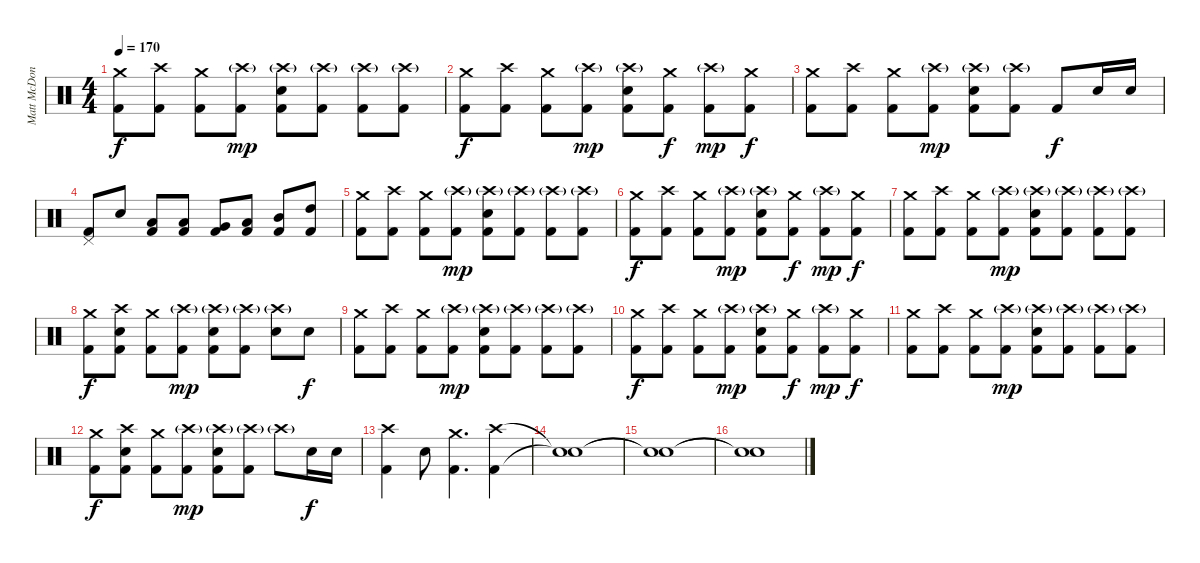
\track ("Matt McDonough" "Matt McDon") {instrument percussion}
\staff {score}
\articulation defaults
\ts (4 4)
\tempo 170
\clef neutral
\ks c
("Crash medium (hit)" "Kick (hit) 2").8{dy f} ("Crash high (hit)" "Kick (hit) 2").8 ("Crash medium (hit)" "Kick (hit) 2").8 ("Crash high (hit)"{g} "Kick (hit) 2").8{dy mp} ("Crash high (hit)"{g} "Electric Snare (hit)" "Kick (hit) 2").8 ("Crash high (hit)"{g} "Kick (hit) 2").8 ("Crash high (hit)"{g} "Kick (hit) 2").8 ("Crash high (hit)"{g} "Kick (hit) 2").8 |
("Crash medium (hit)" "Kick (hit) 2").8{dy f} ("Crash high (hit)" "Kick (hit) 2").8 ("Crash medium (hit)" "Kick (hit) 2").8 ("Crash high (hit)"{g} "Kick (hit) 2").8{dy mp} ("Crash high (hit)"{g} "Electric Snare (hit)" "Kick (hit) 2").8 ("Crash medium (hit)" "Kick (hit) 2").8{dy f} ("Crash high (hit)"{g} "Kick (hit) 2").8{dy mp} ("Crash medium (hit)" "Kick (hit) 2").8{dy f} |
("Crash medium (hit)" "Kick (hit) 2").8 ("Crash high (hit)" "Kick (hit) 2").8 ("Crash medium (hit)" "Kick (hit) 2").8 ("Crash high (hit)"{g} "Kick (hit) 2").8{dy mp} ("Crash high (hit)"{g} "Electric Snare (hit)" "Kick (hit) 2").8 ("Crash high (hit)"{g} "Kick (hit) 2").8 "Kick (hit) 2".8{dy f} "Electric Snare (hit)".16 "Electric Snare (hit)".16 |
("Pedal Hi-Hat (hit)" "Kick (hit) 2").8 "Electric Snare (hit)".8 ("Low Floor Tom (hit)" "Kick (hit) 2").8 ("Low Floor Tom (hit)" "Kick (hit) 2").8 ("Very Low Tom (hit)" "Kick (hit) 2").8 ("Low Tom (hit)" "Kick (hit) 2").8 ("Mid Tom (hit)" "Kick (hit) 2").8 ("High Tom (hit)" "Kick (hit) 2").8 |
("Crash medium (hit)" "Kick (hit) 2").8 ("Crash high (hit)" "Kick (hit) 2").8 ("Crash medium (hit)" "Kick (hit) 2").8 ("Crash high (hit)"{g} "Kick (hit) 2").8{dy mp} ("Crash high (hit)"{g} "Electric Snare (hit)" "Kick (hit) 2").8 ("Crash high (hit)"{g} "Kick (hit) 2").8 ("Crash high (hit)"{g} "Kick (hit) 2").8 ("Crash high (hit)"{g} "Kick (hit) 2").8 |
("Crash medium (hit)" "Kick (hit) 2").8{dy f} ("Crash high (hit)" "Kick (hit) 2").8 ("Crash medium (hit)" "Kick (hit) 2").8 ("Crash high (hit)"{g} "Kick (hit) 2").8{dy mp} ("Crash high (hit)"{g} "Electric Snare (hit)" "Kick (hit) 2").8 ("Crash medium (hit)" "Kick (hit) 2").8{dy f} ("Crash high (hit)"{g} "Kick (hit) 2").8{dy mp} ("Crash medium (hit)" "Kick (hit) 2").8{dy f} |
("Crash medium (hit)" "Kick (hit) 2").8 ("Crash high (hit)" "Kick (hit) 2").8 ("Crash medium (hit)" "Kick (hit) 2").8 ("Crash high (hit)"{g} "Kick (hit) 2").8{dy mp} ("Crash high (hit)"{g} "Electric Snare (hit)" "Kick (hit) 2").8 ("Crash high (hit)"{g} "Kick (hit) 2").8 ("Crash high (hit)"{g} "Kick (hit) 2").8 ("Crash high (hit)"{g} "Kick (hit) 2").8 |
("Crash medium (hit)" "Kick (hit) 2").8{dy f} ("Crash high (hit)" "Electric Snare (hit)" "Kick (hit) 2").8 ("Crash medium (hit)" "Kick (hit) 2").8 ("Crash high (hit)"{g} "Kick (hit) 2").8{dy mp} ("Crash high (hit)"{g} "Electric Snare (hit)" "Kick (hit) 2").8 ("Crash high (hit)"{g} "Kick (hit) 2").8 ("Crash high (hit)"{g} "Electric Snare (hit)").8 "Electric Snare (hit)".8{dy f} |
("Crash medium (hit)" "Kick (hit) 2").8 ("Crash high (hit)" "Kick (hit) 2").8 ("Crash medium (hit)" "Kick (hit) 2").8 ("Crash high (hit)"{g} "Kick (hit) 2").8{dy mp} ("Crash high (hit)"{g} "Electric Snare (hit)" "Kick (hit) 2").8 ("Crash high (hit)"{g} "Kick (hit) 2").8 ("Crash high (hit)"{g} "Kick (hit) 2").8 ("Crash high (hit)"{g} "Kick (hit) 2").8 |
("Crash medium (hit)" "Kick (hit) 2").8{dy f} ("Crash high (hit)" "Kick (hit) 2").8 ("Crash medium (hit)" "Kick (hit) 2").8 ("Crash high (hit)"{g} "Kick (hit) 2").8{dy mp} ("Crash high (hit)"{g} "Electric Snare (hit)" "Kick (hit) 2").8 ("Crash medium (hit)" "Kick (hit) 2").8{dy f} ("Crash high (hit)"{g} "Kick (hit) 2").8{dy mp} ("Crash medium (hit)" "Kick (hit) 2").8{dy f} |
("Crash medium (hit)" "Kick (hit) 2").8 ("Crash high (hit)" "Kick (hit) 2").8 ("Crash medium (hit)" "Kick (hit) 2").8 ("Crash high (hit)"{g} "Kick (hit) 2").8{dy mp} ("Crash high (hit)"{g} "Electric Snare (hit)" "Kick (hit) 2").8 ("Crash high (hit)"{g} "Kick (hit) 2").8 ("Crash high (hit)"{g} "Kick (hit) 2").8 ("Crash high (hit)"{g} "Kick (hit) 2").8 |
("Crash medium (hit)" "Kick (hit) 2").8{dy f} ("Crash high (hit)" "Electric Snare (hit)" "Kick (hit) 2").8 ("Crash medium (hit)" "Kick (hit) 2").8 ("Crash high (hit)"{g} "Kick (hit) 2").8{dy mp} ("Crash high (hit)"{g} "Electric Snare (hit)" "Kick (hit) 2").8 ("Crash high (hit)"{g} "Kick (hit) 2").8 "Crash high (hit)"{g}.8 "Electric Snare (hit)".16{dy f} "Electric Snare (hit)".16 |
("Crash high (hit)" "Kick (hit) 2").4 "Electric Snare (hit)".8 ("Crash medium (hit)" "Kick (hit) 2").4{d} ("Crash high (hit)" "Kick (hit) 2").4 |
("Snare (hit)"{t} "Snare (hit)"{t}).1 |
("Snare (hit)"{t} "Snare (hit)"{t}).1 |
("Snare (hit)"{t} "Snare (hit)"{t}).1
